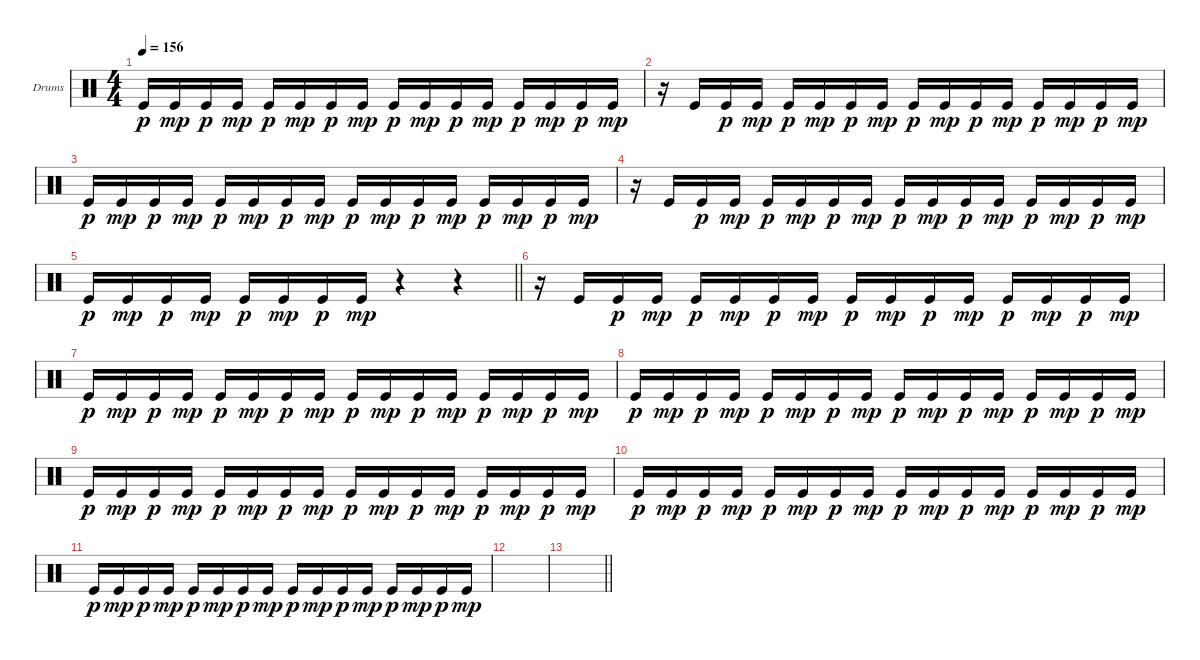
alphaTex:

\bracketExtendMode groupsimilarinstruments
\firstSystemTrackNameOrientation horizontal
\otherSystemsTrackNameOrientation horizontal
\track ("Drums Kick" "Drums") {instrument percussion}
\staff {score}
\articulation defaults
\ts (4 4)
\tempo 156
\clef neutral
\scale
0.333333
\ks c "Kick (hit)".16{dy p} "Kick (hit)".16{dy mp} "Kick (hit)".16{dy p} "Kick (hit)".16{dy mp} "Kick (hit)".16{dy p} "Kick (hit)".16{dy mp} "Kick (hit)".16{dy p} "Kick (hit)".16{dy mp} "Kick (hit)".16{dy p} "Kick (hit)".16{dy mp} "Kick (hit)".16{dy p} "Kick (hit)".16{dy mp} "Kick (hit)".16{dy p} "Kick (hit)".16{dy mp} "Kick (hit)".16{dy p} "Kick (hit)".16{dy mp}
|
\scale
0.333333 r.16 "Kick (hit)".16 "Kick (hit)".16{dy p} "Kick (hit)".16{dy mp} "Kick (hit)".16{dy p} "Kick (hit)".16{dy mp} "Kick (hit)".16{dy p} "Kick (hit)".16{dy mp} "Kick (hit)".16{dy p} "Kick (hit)".16{dy mp} "Kick (hit)".16{dy p} "Kick (hit)".16{dy mp} "Kick (hit)".16{dy p} "Kick (hit)".16{dy mp} "Kick (hit)".16{dy p} "Kick (hit)".16{dy mp} |
\scale
0.333333 "Kick (hit)".16{dy p} "Kick (hit)".16{dy mp} "Kick (hit)".16{dy p} "Kick (hit)".16{dy mp} "Kick (hit)".16{dy p} "Kick (hit)".16{dy mp} "Kick (hit)".16{dy p} "Kick (hit)".16{dy mp} "Kick (hit)".16{dy p} "Kick (hit)".16{dy mp} "Kick (hit)".16{dy p} "Kick (hit)".16{dy mp} "Kick (hit)".16{dy p} "Kick (hit)".16{dy mp} "Kick (hit)".16{dy p} "Kick (hit)".16{dy mp} |
\scale
0.333333 r.16 "Kick (hit)".16 "Kick (hit)".16{dy p} "Kick (hit)".16{dy mp} "Kick (hit)".16{dy p} "Kick (hit)".16{dy mp} "Kick (hit)".16{dy p} "Kick (hit)".16{dy mp} "Kick (hit)".16{dy p} "Kick (hit)".16{dy mp} "Kick (hit)".16{dy p} "Kick (hit)".16{dy mp} "Kick (hit)".16{dy p} "Kick (hit)".16{dy mp} "Kick (hit)".16{dy p} "Kick (hit)".16{dy mp} |
\scale
0.333333
\barLineRight lightlight "Kick (hit)".16{dy p} "Kick (hit)".16{dy mp} "Kick (hit)".16{dy p} "Kick (hit)".16{dy mp} "Kick (hit)".16{dy p} "Kick (hit)".16{dy mp} "Kick (hit)".16{dy p} "Kick (hit)".16{dy mp}
r.4 r.4 |
\scale
0.333333 r.16 "Kick (hit)".16 "Kick (hit)".16{dy p} "Kick (hit)".16{dy mp} "Kick (hit)".16{dy p} "Kick (hit)".16{dy mp} "Kick (hit)".16{dy p} "Kick (hit)".16{dy mp} "Kick (hit)".16{dy p} "Kick (hit)".16{dy mp} "Kick (hit)".16{dy p} "Kick (hit)".16{dy mp} "Kick (hit)".16{dy p} "Kick (hit)".16{dy mp} "Kick (hit)".16{dy p} "Kick (hit)".16{dy mp} |
\scale
0.333333 "Kick (hit)".16{dy p} "Kick (hit)".16{dy mp} "Kick (hit)".16{dy p} "Kick (hit)".16{dy mp} "Kick (hit)".16{dy p} "Kick (hit)".16{dy mp} "Kick (hit)".16{dy p} "Kick (hit)".16{dy mp} "Kick (hit)".16{dy p} "Kick (hit)".16{dy mp} "Kick (hit)".16{dy p} "Kick (hit)".16{dy mp} "Kick (hit)".16{dy p} "Kick (hit)".16{dy mp} "Kick (hit)".16{dy p} "Kick (hit)".16{dy mp} |
\scale
0.333333 "Kick (hit)".16{dy p} "Kick (hit)".16{dy mp} "Kick (hit)".16{dy p} "Kick (hit)".16{dy mp} "Kick (hit)".16{dy p} "Kick (hit)".16{dy mp} "Kick (hit)".16{dy p} "Kick (hit)".16{dy mp} "Kick (hit)".16{dy p} "Kick (hit)".16{dy mp} "Kick (hit)".16{dy p} "Kick (hit)".16{dy mp} "Kick (hit)".16{dy p} "Kick (hit)".16{dy mp} "Kick (hit)".16{dy p} "Kick (hit)".16{dy mp} |
\scale
0.333333 "Kick (hit)".16{dy p} "Kick (hit)".16{dy mp} "Kick (hit)".16{dy p} "Kick (hit)".16{dy mp} "Kick (hit)".16{dy p} "Kick (hit)".16{dy mp} "Kick (hit)".16{dy p} "Kick (hit)".16{dy mp} "Kick (hit)".16{dy p} "Kick (hit)".16{dy mp} "Kick (hit)".16{dy p} "Kick (hit)".16{dy mp} "Kick (hit)".16{dy p} "Kick (hit)".16{dy mp} "Kick (hit)".16{dy p} "Kick (hit)".16{dy mp} |
\scale
0.333333 "Kick (hit)".16{dy p} "Kick (hit)".16{dy mp} "Kick (hit)".16{dy p} "Kick (hit)".16{dy mp} "Kick (hit)".16{dy p} "Kick (hit)".16{dy mp} "Kick (hit)".16{dy p} "Kick (hit)".16{dy mp} "Kick (hit)".16{dy p} "Kick (hit)".16{dy mp} "Kick (hit)".16{dy p} "Kick (hit)".16{dy mp} "Kick (hit)".16{dy p} "Kick (hit)".16{dy mp} "Kick (hit)".16{dy p} "Kick (hit)".16{dy mp} |
\scale
0.333333 "Kick (hit)".16{dy p} "Kick (hit)".16{dy mp} "Kick (hit)".16{dy p} "Kick (hit)".16{dy mp} "Kick (hit)".16{dy p} "Kick (hit)".16{dy mp} "Kick (hit)".16{dy p} "Kick (hit)".16{dy mp} "Kick (hit)".16{dy p} "Kick (hit)".16{dy mp} "Kick (hit)".16{dy p} "Kick (hit)".16{dy mp} "Kick (hit)".16{dy p} "Kick (hit)".16{dy mp} "Kick (hit)".16{dy p} "Kick (hit)".16{dy mp} |
\scale
0.333333 |
\scale
0.333333
\barLineRight lightlight
|
\scale
0.333333 |
\scale
0.333333 |
\scale
0.333333
